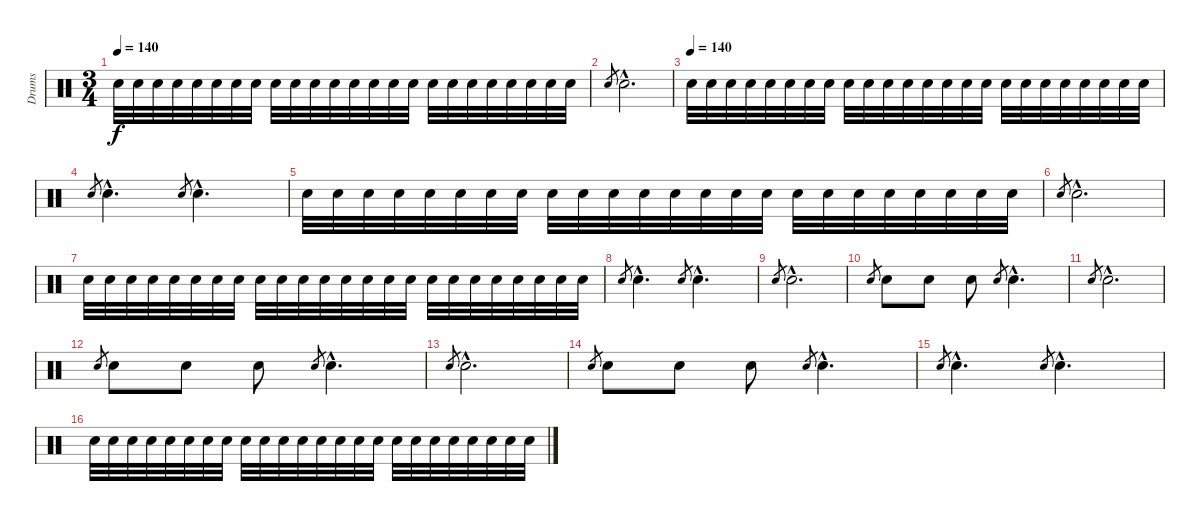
\track ("Drums" "Drums") {instrument percussion}
\staff {score}
\articulation defaults
\ts (3 4)
\tempo 140
\clef neutral
\ks c "Snare (hit) 2".32{dy f} "Snare (hit) 2".32 "Snare (hit) 2".32 "Snare (hit) 2".32 "Snare (hit) 2".32 "Snare (hit) 2".32 "Snare (hit) 2".32 "Snare (hit) 2".32 "Snare (hit) 2".32 "Snare (hit) 2".32 "Snare (hit) 2".32 "Snare (hit) 2".32 "Snare (hit) 2".32 "Snare (hit) 2".32 "Snare (hit) 2".32 "Snare (hit) 2".32 "Snare (hit) 2".32 "Snare (hit) 2".32 "Snare (hit) 2".32 "Snare (hit) 2".32 "Snare (hit) 2".32 "Snare (hit) 2".32 "Snare (hit) 2".32 "Snare (hit) 2".32
|
"Snare (hit) 2".8{gr} "Snare (hit) 2"{hac}.2{d} |
\tempo (140)
"Snare (hit) 2".32{volume 10} "Snare (hit) 2".32 "Snare (hit) 2".32 "Snare (hit) 2".32 "Snare (hit) 2".32 "Snare (hit) 2".32 "Snare (hit) 2".32 "Snare (hit) 2".32 "Snare (hit) 2".32 "Snare (hit) 2".32 "Snare (hit) 2".32 "Snare (hit) 2".32 "Snare (hit) 2".32 "Snare (hit) 2".32 "Snare (hit) 2".32 "Snare (hit) 2".32 "Snare (hit) 2".32 "Snare (hit) 2".32 "Snare (hit) 2".32 "Snare (hit) 2".32 "Snare (hit) 2".32 "Snare (hit) 2".32 "Snare (hit) 2".32 "Snare (hit) 2".32 |
"Snare (hit) 2".8{gr} "Snare (hit) 2"{hac}.4{d} "Snare (hit) 2".8{gr} "Snare (hit) 2"{hac}.4{d} |
"Snare (hit) 2".32 "Snare (hit) 2".32 "Snare (hit) 2".32 "Snare (hit) 2".32 "Snare (hit) 2".32 "Snare (hit) 2".32 "Snare (hit) 2".32 "Snare (hit) 2".32 "Snare (hit) 2".32 "Snare (hit) 2".32 "Snare (hit) 2".32 "Snare (hit) 2".32 "Snare (hit) 2".32 "Snare (hit) 2".32 "Snare (hit) 2".32 "Snare (hit) 2".32 "Snare (hit) 2".32 "Snare (hit) 2".32 "Snare (hit) 2".32 "Snare (hit) 2".32 "Snare (hit) 2".32 "Snare (hit) 2".32 "Snare (hit) 2".32 "Snare (hit) 2".32 |
"Snare (hit) 2".8{gr} "Snare (hit) 2"{hac}.2{d} |
"Snare (hit) 2".32 "Snare (hit) 2".32 "Snare (hit) 2".32 "Snare (hit) 2".32 "Snare (hit) 2".32 "Snare (hit) 2".32 "Snare (hit) 2".32 "Snare (hit) 2".32 "Snare (hit) 2".32 "Snare (hit) 2".32 "Snare (hit) 2".32 "Snare (hit) 2".32 "Snare (hit) 2".32 "Snare (hit) 2".32 "Snare (hit) 2".32 "Snare (hit) 2".32 "Snare (hit) 2".32 "Snare (hit) 2".32 "Snare (hit) 2".32 "Snare (hit) 2".32 "Snare (hit) 2".32 "Snare (hit) 2".32 "Snare (hit) 2".32 "Snare (hit) 2".32 |
"Snare (hit) 2".8{gr} "Snare (hit) 2"{hac}.4{d} "Snare (hit) 2".8{gr} "Snare (hit) 2"{hac}.4{d} |
"Snare (hit) 2".8{gr} "Snare (hit) 2"{hac}.2{d} |
"Snare (hit) 2".8{gr} "Snare (hit) 2".8 "Snare (hit) 2".8 "Snare (hit) 2".8 "Snare (hit) 2".8{gr} "Snare (hit) 2"{hac}.4{d} |
"Snare (hit) 2".8{gr} "Snare (hit) 2"{hac}.2{d} |
"Snare (hit) 2".8{gr} "Snare (hit) 2".8 "Snare (hit) 2".8 "Snare (hit) 2".8 "Snare (hit) 2".8{gr} "Snare (hit) 2"{hac}.4{d} |
"Snare (hit) 2".8{gr} "Snare (hit) 2"{hac}.2{d} |
"Snare (hit) 2".8{gr} "Snare (hit) 2".8 "Snare (hit) 2".8 "Snare (hit) 2".8 "Snare (hit) 2".8{gr} "Snare (hit) 2"{hac}.4{d} |
"Snare (hit) 2".8{gr} "Snare (hit) 2"{hac}.4{d} "Snare (hit) 2".8{gr} "Snare (hit) 2"{hac}.4{d} |
"Snare (hit) 2".32 "Snare (hit) 2".32 "Snare (hit) 2".32 "Snare (hit) 2".32 "Snare (hit) 2".32 "Snare (hit) 2".32 "Snare (hit) 2".32 "Snare (hit) 2".32 "Snare (hit) 2".32 "Snare (hit) 2".32 "Snare (hit) 2".32 "Snare (hit) 2".32 "Snare (hit) 2".32 "Snare (hit) 2".32 "Snare (hit) 2".32 "Snare (hit) 2".32 "Snare (hit) 2".32 "Snare (hit) 2".32 "Snare (hit) 2".32 "Snare (hit) 2".32 "Snare (hit) 2".32 "Snare (hit) 2".32 "Snare (hit) 2".32 "Snare (hit) 2".32
